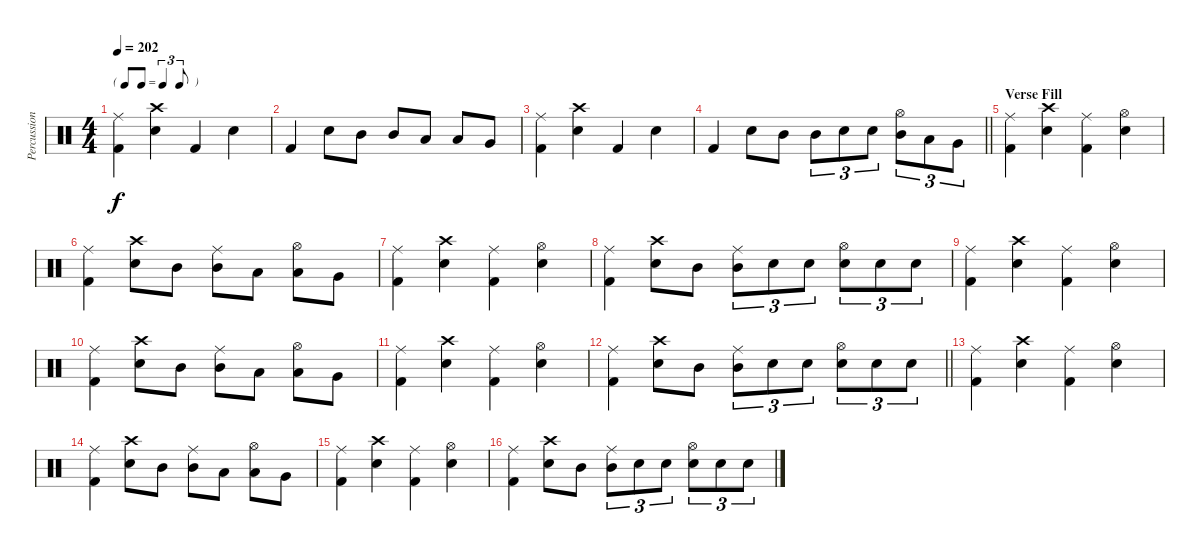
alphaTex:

\track ("Percussion" "Percussion") {instrument percussion}
\staff {score}
\articulation defaults
\ts (4 4)
\tf triplet8th
\tempo 202
\clef neutral
\ks c
("Ride (middle)" "Kick (hit) 2").4{dy f} ("Crash high (hit)" "Electric Snare (hit)").4 "Kick (hit) 2".4 "Electric Snare (hit)".4 |
"Kick (hit) 2".4 "Electric Snare (hit)".8 "Mid Tom (hit)".8 "Mid Tom (hit)".8 "Low Tom (hit)".8 "Low Tom (hit)".8 "Very Low Tom (hit)".8 |
("Ride (middle)" "Kick (hit) 2").4 ("Crash high (hit)" "Electric Snare (hit)").4 "Kick (hit) 2".4 "Electric Snare (hit)".4 |
\barLineRight lightlight "Kick (hit) 2".4 "Electric Snare (hit)".8 "Mid Tom (hit)".8 "Mid Tom (hit)".8{tu (3 2)} "Electric Snare (hit)".8{tu (3 2)} "Electric Snare (hit)".8{tu (3 2)}
("Hi-Hat (open)" "Mid Tom (hit)").8{tu (3 2)} "Low Tom (hit)".8{tu (3 2)} "Very Low Tom (hit)".8{tu (3 2)} |
\section ("" "Verse Fill")
("Ride (middle)" "Kick (hit) 2").4 ("Crash high (hit)" "Electric Snare (hit)").4 ("Ride (middle)" "Kick (hit) 2").4 ("Hi-Hat (open)" "Electric Snare (hit)").4 |
("Ride (middle)" "Kick (hit) 2").4 ("Crash high (hit)" "Electric Snare (hit)").8 "Mid Tom (hit)".8 ("Ride (middle)" "Mid Tom (hit)").8 "Low Tom (hit)".8 ("Hi-Hat (open)" "Low Tom (hit)").8 "Very Low Tom (hit)".8 |
("Ride (middle)" "Kick (hit) 2").4 ("Crash high (hit)" "Electric Snare (hit)").4 ("Ride (middle)" "Kick (hit) 2").4 ("Hi-Hat (open)" "Electric Snare (hit)").4 |
("Ride (middle)" "Kick (hit) 2").4 ("Crash high (hit)" "Electric Snare (hit)").8 "Mid Tom (hit)".8 ("Ride (middle)" "Mid Tom (hit)").8{tu (3 2)} "Electric Snare (hit)".8{tu (3 2)} "Electric Snare (hit)".8{tu (3 2)} ("Hi-Hat (open)" "Electric Snare (hit)").8{tu (3 2)} "Electric Snare (hit)".8{tu (3 2)} "Electric Snare (hit)".8{tu (3 2)} |
("Ride (middle)" "Kick (hit) 2").4 ("Crash high (hit)" "Electric Snare (hit)").4 ("Ride (middle)" "Kick (hit) 2").4 ("Hi-Hat (open)" "Electric Snare (hit)").4 |
("Ride (middle)" "Kick (hit) 2").4 ("Crash high (hit)" "Electric Snare (hit)").8 "Mid Tom (hit)".8 ("Ride (middle)" "Mid Tom (hit)").8 "Low Tom (hit)".8 ("Hi-Hat (open)" "Low Tom (hit)").8 "Very Low Tom (hit)".8 |
("Ride (middle)" "Kick (hit) 2").4 ("Crash high (hit)" "Electric Snare (hit)").4 ("Ride (middle)" "Kick (hit) 2").4 ("Hi-Hat (open)" "Electric Snare (hit)").4 |
\barLineRight lightlight
("Ride (middle)" "Kick (hit) 2").4 ("Crash high (hit)" "Electric Snare (hit)").8 "Mid Tom (hit)".8 ("Ride (middle)" "Mid Tom (hit)").8{tu (3 2)} "Electric Snare (hit)".8{tu (3 2)} "Electric Snare (hit)".8{tu (3 2)} ("Hi-Hat (open)" "Electric Snare (hit)").8{tu (3 2)} "Electric Snare (hit)".8{tu (3 2)} "Electric Snare (hit)".8{tu (3 2)} |
("Ride (middle)" "Kick (hit) 2").4 ("Crash high (hit)" "Electric Snare (hit)").4 ("Ride (middle)" "Kick (hit) 2").4 ("Hi-Hat (open)" "Electric Snare (hit)").4 |
("Ride (middle)" "Kick (hit) 2").4 ("Crash high (hit)" "Electric Snare (hit)").8 "Mid Tom (hit)".8 ("Ride (middle)" "Mid Tom (hit)").8 "Low Tom (hit)".8 ("Hi-Hat (open)" "Low Tom (hit)").8 "Very Low Tom (hit)".8 |
("Ride (middle)" "Kick (hit) 2").4 ("Crash high (hit)" "Electric Snare (hit)").4 ("Ride (middle)" "Kick (hit) 2").4 ("Hi-Hat (open)" "Electric Snare (hit)").4 |
("Ride (middle)" "Kick (hit) 2").4 ("Crash high (hit)" "Electric Snare (hit)").8 "Mid Tom (hit)".8 ("Ride (middle)" "Mid Tom (hit)").8{tu (3 2)} "Electric Snare (hit)".8{tu (3 2)} "Electric Snare (hit)".8{tu (3 2)} ("Hi-Hat (open)" "Electric Snare (hit)").8{tu (3 2)} "Electric Snare (hit)".8{tu (3 2)} "Electric Snare (hit)".8{tu (3 2)}
